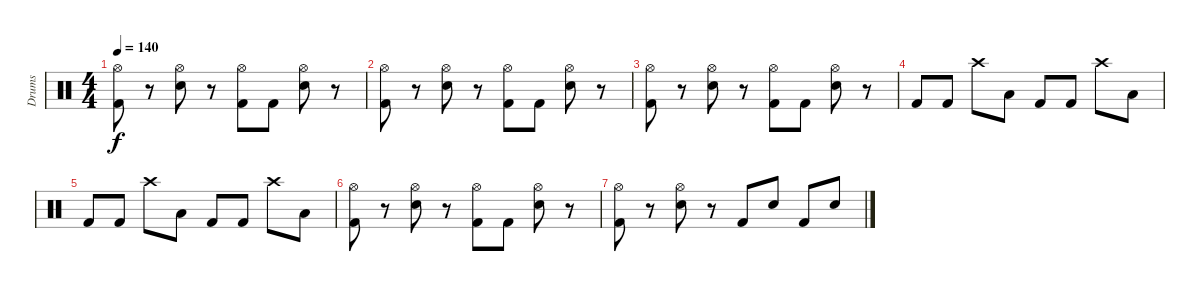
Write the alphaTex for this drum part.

\track ("Drums" "Drums") {instrument percussion}
\staff {score}
\articulation defaults
\ts (4 4)
\tempo 140
\clef neutral
\ks c
("Hi-Hat (open)" "Kick (hit) 2").8{dy f} r.8 ("Hi-Hat (open)" "Snare (hit) 2").8 r.8 ("Hi-Hat (open)" "Kick (hit) 2").8 "Kick (hit) 2".8 ("Hi-Hat (open)" "Snare (hit) 2").8 r.8 |
("Hi-Hat (open)" "Kick (hit) 2").8 r.8 ("Hi-Hat (open)" "Snare (hit) 2").8 r.8 ("Hi-Hat (open)" "Kick (hit) 2").8 "Kick (hit) 2".8 ("Hi-Hat (open)" "Snare (hit) 2").8 r.8 |
("Hi-Hat (open)" "Kick (hit) 2").8 r.8 ("Hi-Hat (open)" "Snare (hit) 2").8 r.8 ("Hi-Hat (open)" "Kick (hit) 2").8 "Kick (hit) 2".8 ("Hi-Hat (open)" "Snare (hit) 2").8 r.8 |
"Kick (hit) 2".8 "Kick (hit) 2".8 "Crash high (hit)".8 "Low Tom (hit)".8 "Kick (hit) 2".8 "Kick (hit) 2".8 "Crash high (hit)".8 "Low Tom (hit)".8 |
"Kick (hit) 2".8 "Kick (hit) 2".8 "Crash high (hit)".8 "Low Tom (hit)".8 "Kick (hit) 2".8 "Kick (hit) 2".8 "Crash high (hit)".8 "Low Tom (hit)".8 |
("Hi-Hat (open)" "Kick (hit) 2").8 r.8 ("Hi-Hat (open)" "Snare (hit) 2").8 r.8 ("Hi-Hat (open)" "Kick (hit) 2").8 "Kick (hit) 2".8 ("Hi-Hat (open)" "Snare (hit) 2").8 r.8 |
("Hi-Hat (open)" "Kick (hit) 2").8 r.8 ("Hi-Hat (open)" "Snare (hit) 2").8 r.8 "Kick (hit) 2".8 "Snare (hit) 2".8 "Kick (hit) 2".8 "Snare (hit) 2".8
